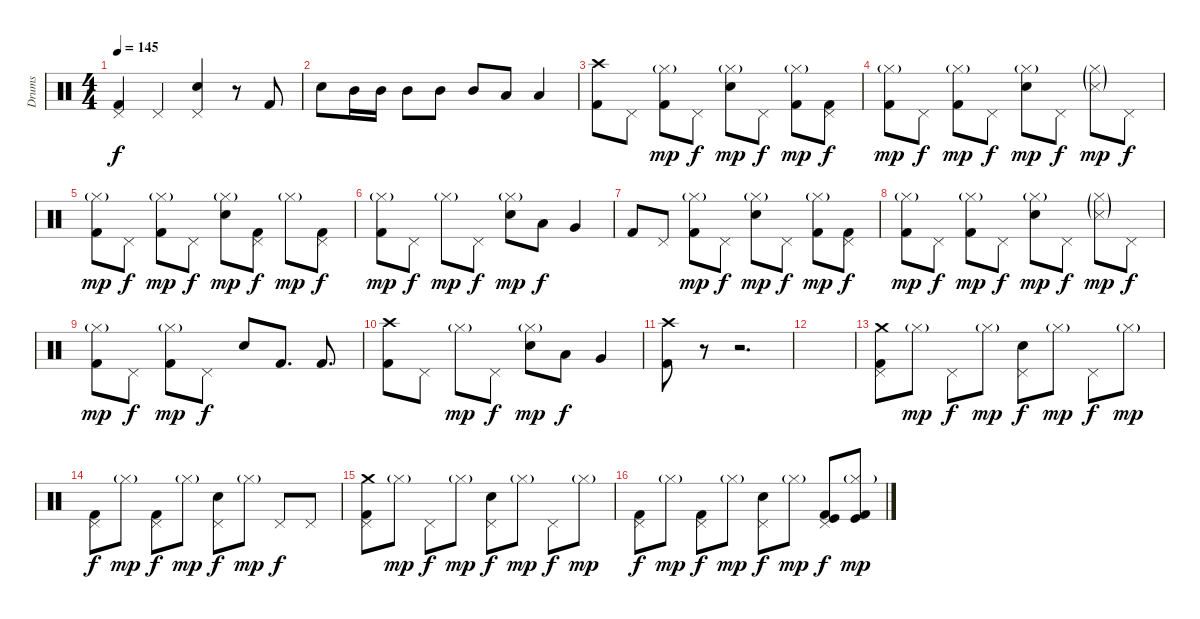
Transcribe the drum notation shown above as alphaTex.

\track ("Drums" "Drums") {instrument percussion}
\staff {score}
\articulation defaults
\ts (4 4)
\tempo 145
\clef neutral
\ks c
("Pedal Hi-Hat (hit)" "Kick (hit) 2").4{dy f} "Pedal Hi-Hat (hit)".4 ("Pedal Hi-Hat (hit)" "Snare (hit) 2").4 r.8 "Kick (hit) 2".8 |
"Snare (hit) 2".8 "Mid Tom (hit)".16 "Mid Tom (hit)".16 "Mid Tom (hit)".8 "Mid Tom (hit)".8 "Mid Tom (hit)".8 "Low Tom (hit)".8 "Low Floor Tom (hit)".4 |
("Crash high (hit)" "Kick (hit) 2").8 "Pedal Hi-Hat (hit)".8 ("Hi-Hat (closed)"{g} "Kick (hit) 2").8{dy mp} "Pedal Hi-Hat (hit)".8{dy f} ("Hi-Hat (closed)"{g} "Snare (hit) 2").8{dy mp} "Pedal Hi-Hat (hit)".8{dy f} ("Hi-Hat (closed)"{g} "Kick (hit) 2").8{dy mp} ("Pedal Hi-Hat (hit)" "Kick (hit) 2").8{dy f} |
("Hi-Hat (closed)"{g} "Kick (hit) 2").8{dy mp} "Pedal Hi-Hat (hit)".8{dy f} ("Hi-Hat (closed)"{g} "Kick (hit) 2").8{dy mp} "Pedal Hi-Hat (hit)".8{dy f} ("Hi-Hat (closed)"{g} "Snare (hit) 2").8{dy mp} "Pedal Hi-Hat (hit)".8{dy f} ("Hi-Hat (closed)"{g} "Snare (side stick) 3"{g}).8{dy mp} "Pedal Hi-Hat (hit)".8{dy f} |
("Hi-Hat (closed)"{g} "Kick (hit) 2").8{dy mp} "Pedal Hi-Hat (hit)".8{dy f} ("Hi-Hat (closed)"{g} "Kick (hit) 2").8{dy mp} "Pedal Hi-Hat (hit)".8{dy f} ("Hi-Hat (closed)"{g} "Snare (hit) 2").8{dy mp} ("Pedal Hi-Hat (hit)" "Kick (hit) 2").8{dy f} "Hi-Hat (closed)"{g}.8{dy mp} ("Pedal Hi-Hat (hit)" "Kick (hit) 2").8{dy f} |
("Hi-Hat (closed)"{g} "Kick (hit) 2").8{dy mp} "Pedal Hi-Hat (hit)".8{dy f} "Hi-Hat (closed)"{g}.8{dy mp} "Pedal Hi-Hat (hit)".8{dy f} ("Hi-Hat (closed)"{g} "Snare (hit) 2").8{dy mp} "Low Tom (hit)".8{dy f} "Very Low Tom (hit)".4 |
"Kick (hit) 2".8 "Pedal Hi-Hat (hit)".8 ("Hi-Hat (closed)"{g} "Kick (hit) 2").8{dy mp} "Pedal Hi-Hat (hit)".8{dy f} ("Hi-Hat (closed)"{g} "Snare (hit) 2").8{dy mp} "Pedal Hi-Hat (hit)".8{dy f} ("Hi-Hat (closed)"{g} "Kick (hit) 2").8{dy mp} ("Pedal Hi-Hat (hit)" "Kick (hit) 2").8{dy f} |
("Hi-Hat (closed)"{g} "Kick (hit) 2").8{dy mp} "Pedal Hi-Hat (hit)".8{dy f} ("Hi-Hat (closed)"{g} "Kick (hit) 2").8{dy mp} "Pedal Hi-Hat (hit)".8{dy f} ("Hi-Hat (closed)"{g} "Snare (hit) 2").8{dy mp} "Pedal Hi-Hat (hit)".8{dy f} ("Hi-Hat (closed)"{g} "Snare (side stick) 3"{g}).8{dy mp} "Pedal Hi-Hat (hit)".8{dy f} |
("Hi-Hat (closed)"{g} "Kick (hit) 2").8{dy mp} "Pedal Hi-Hat (hit)".8{dy f} ("Hi-Hat (closed)"{g} "Kick (hit) 2").8{dy mp} "Pedal Hi-Hat (hit)".8{dy f} "Snare (hit) 2".8 "Kick (hit) 2".8{d} "Kick (hit) 2".8{d} |
("Crash high (hit)" "Kick (hit) 2").8 "Pedal Hi-Hat (hit)".8 "Hi-Hat (closed)"{g}.8{dy mp} "Pedal Hi-Hat (hit)".8{dy f} ("Hi-Hat (closed)"{g} "Snare (hit) 2").8{dy mp} "Low Tom (hit)".8{dy f} "Very Low Tom (hit)".4 |
("Crash high (hit)" "Kick (hit) 2").8 r.8 r.2{d} |
|
("Pedal Hi-Hat (hit)" "Crash medium (hit)" "Kick (hit) 2").8 "Hi-Hat (closed)"{g}.8{dy mp} "Pedal Hi-Hat (hit)".8{dy f} "Hi-Hat (closed)"{g}.8{dy mp} ("Pedal Hi-Hat (hit)" "Snare (hit) 2").8{dy f} "Hi-Hat (closed)"{g}.8{dy mp} "Pedal Hi-Hat (hit)".8{dy f} "Hi-Hat (closed)"{g}.8{dy mp} |
("Pedal Hi-Hat (hit)" "Kick (hit) 2").8{dy f} "Hi-Hat (closed)"{g}.8{dy mp} ("Pedal Hi-Hat (hit)" "Kick (hit) 2").8{dy f} "Hi-Hat (closed)"{g}.8{dy mp} ("Pedal Hi-Hat (hit)" "Snare (hit) 2").8{dy f} "Hi-Hat (closed)"{g}.8{dy mp} "Pedal Hi-Hat (hit)".8{dy f} "Pedal Hi-Hat (hit)".8 |
("Pedal Hi-Hat (hit)" "Crash medium (hit)" "Kick (hit) 2").8 "Hi-Hat (closed)"{g}.8{dy mp} "Pedal Hi-Hat (hit)".8{dy f} "Hi-Hat (closed)"{g}.8{dy mp} ("Pedal Hi-Hat (hit)" "Snare (hit) 2").8{dy f} "Hi-Hat (closed)"{g}.8{dy mp} "Pedal Hi-Hat (hit)".8{dy f} "Hi-Hat (closed)"{g}.8{dy mp} |
("Pedal Hi-Hat (hit)" "Kick (hit) 2").8{dy f} "Hi-Hat (closed)"{g}.8{dy mp} ("Pedal Hi-Hat (hit)" "Kick (hit) 2").8{dy f} "Hi-Hat (closed)"{g}.8{dy mp} ("Pedal Hi-Hat (hit)" "Snare (hit) 2").8{dy f} "Hi-Hat (closed)"{g}.8{dy mp} ("Pedal Hi-Hat (hit)" "Kick (hit)" "Kick (hit) 2").8{dy f} ("Hi-Hat (closed)"{g} "Kick (hit)" "Kick (hit) 2").8{dy mp}
